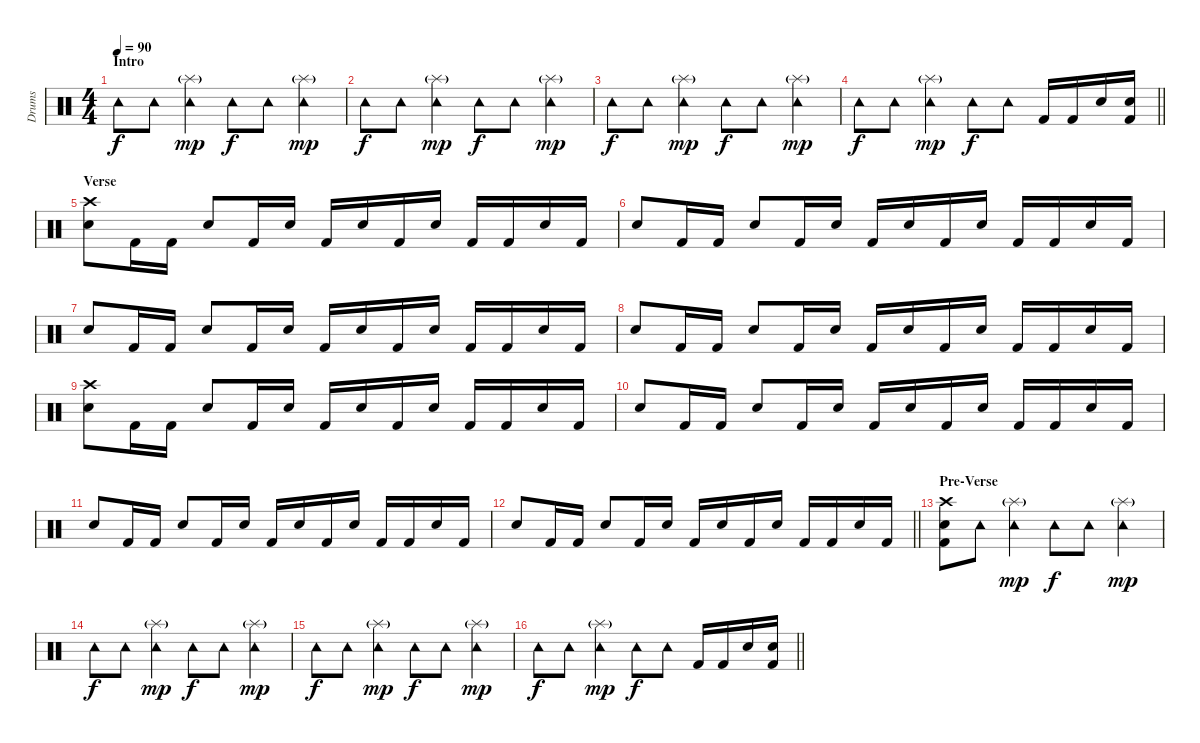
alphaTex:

\track ("Drums" "Drums") {instrument percussion}
\staff {score}
\articulation defaults
\ts (4 4)
\section ("" "Intro")
\tempo 90
\clef neutral
\ks c "Tambourine (hit)".8{dy f} "Tambourine (hit)".8
("Tambourine (hit)" "Splash (hit)"{g}).4{dy mp} "Tambourine (hit)".8{dy f} "Tambourine (hit)".8 ("Tambourine (hit)" "Splash (hit)"{g}).4{dy mp} |
"Tambourine (hit)".8{dy f} "Tambourine (hit)".8 ("Tambourine (hit)" "Splash (hit)"{g}).4{dy mp} "Tambourine (hit)".8{dy f} "Tambourine (hit)".8 ("Tambourine (hit)" "Splash (hit)"{g}).4{dy mp} |
"Tambourine (hit)".8{dy f} "Tambourine (hit)".8 ("Tambourine (hit)" "Splash (hit)"{g}).4{dy mp} "Tambourine (hit)".8{dy f} "Tambourine (hit)".8 ("Tambourine (hit)" "Splash (hit)"{g}).4{dy mp} |
\barLineRight lightlight "Tambourine (hit)".8{dy f} "Tambourine (hit)".8
("Tambourine (hit)" "Splash (hit)"{g}).4{dy mp} "Tambourine (hit)".8{dy f} "Tambourine (hit)".8 "Kick (hit) 2".16 "Kick (hit) 2".16 "Electric Snare (hit)".16 ("Kick (hit) 2" "Electric Snare (hit)").16 |
\section ("" "Verse")
("Electric Snare (hit)" "Crash high (hit)").8 "Kick (hit) 2".16 "Kick (hit) 2".16 "Electric Snare (hit)".8 "Kick (hit) 2".16 "Electric Snare (hit)".16 "Kick (hit) 2".16 "Electric Snare (hit)".16 "Kick (hit) 2".16 "Electric Snare (hit)".16 "Kick (hit) 2".16 "Kick (hit) 2".16 "Electric Snare (hit)".16 "Kick (hit) 2".16 |
"Electric Snare (hit)".8 "Kick (hit) 2".16 "Kick (hit) 2".16 "Electric Snare (hit)".8 "Kick (hit) 2".16 "Electric Snare (hit)".16 "Kick (hit) 2".16 "Electric Snare (hit)".16 "Kick (hit) 2".16 "Electric Snare (hit)".16 "Kick (hit) 2".16 "Kick (hit) 2".16 "Electric Snare (hit)".16 "Kick (hit) 2".16 |
"Electric Snare (hit)".8 "Kick (hit) 2".16 "Kick (hit) 2".16 "Electric Snare (hit)".8 "Kick (hit) 2".16 "Electric Snare (hit)".16 "Kick (hit) 2".16 "Electric Snare (hit)".16 "Kick (hit) 2".16 "Electric Snare (hit)".16 "Kick (hit) 2".16 "Kick (hit) 2".16 "Electric Snare (hit)".16 "Kick (hit) 2".16 |
"Electric Snare (hit)".8 "Kick (hit) 2".16 "Kick (hit) 2".16 "Electric Snare (hit)".8 "Kick (hit) 2".16 "Electric Snare (hit)".16 "Kick (hit) 2".16 "Electric Snare (hit)".16 "Kick (hit) 2".16 "Electric Snare (hit)".16 "Kick (hit) 2".16 "Kick (hit) 2".16 "Electric Snare (hit)".16 "Kick (hit) 2".16 |
("Electric Snare (hit)" "Crash high (hit)").8 "Kick (hit) 2".16 "Kick (hit) 2".16 "Electric Snare (hit)".8 "Kick (hit) 2".16 "Electric Snare (hit)".16 "Kick (hit) 2".16 "Electric Snare (hit)".16 "Kick (hit) 2".16 "Electric Snare (hit)".16 "Kick (hit) 2".16 "Kick (hit) 2".16 "Electric Snare (hit)".16 "Kick (hit) 2".16 |
"Electric Snare (hit)".8 "Kick (hit) 2".16 "Kick (hit) 2".16 "Electric Snare (hit)".8 "Kick (hit) 2".16 "Electric Snare (hit)".16 "Kick (hit) 2".16 "Electric Snare (hit)".16 "Kick (hit) 2".16 "Electric Snare (hit)".16 "Kick (hit) 2".16 "Kick (hit) 2".16 "Electric Snare (hit)".16 "Kick (hit) 2".16 |
"Electric Snare (hit)".8 "Kick (hit) 2".16 "Kick (hit) 2".16 "Electric Snare (hit)".8 "Kick (hit) 2".16 "Electric Snare (hit)".16 "Kick (hit) 2".16 "Electric Snare (hit)".16 "Kick (hit) 2".16 "Electric Snare (hit)".16 "Kick (hit) 2".16 "Kick (hit) 2".16 "Electric Snare (hit)".16 "Kick (hit) 2".16 |
\barLineRight lightlight "Electric Snare (hit)".8 "Kick (hit) 2".16 "Kick (hit) 2".16 "Electric Snare (hit)".8 "Kick (hit) 2".16 "Electric Snare (hit)".16 "Kick (hit) 2".16 "Electric Snare (hit)".16 "Kick (hit) 2".16 "Electric Snare (hit)".16 "Kick (hit) 2".16 "Kick (hit) 2".16 "Electric Snare (hit)".16 "Kick (hit) 2".16
|
\section ("" "Pre-Verse")
("Kick (hit) 2" "Electric Snare (hit)" "Crash high (hit)").8 "Tambourine (hit)".8 ("Tambourine (hit)" "Splash (hit)"{g}).4{dy mp} "Tambourine (hit)".8{dy f} "Tambourine (hit)".8 ("Tambourine (hit)" "Splash (hit)"{g}).4{dy mp} |
"Tambourine (hit)".8{dy f} "Tambourine (hit)".8 ("Tambourine (hit)" "Splash (hit)"{g}).4{dy mp} "Tambourine (hit)".8{dy f} "Tambourine (hit)".8 ("Tambourine (hit)" "Splash (hit)"{g}).4{dy mp} |
"Tambourine (hit)".8{dy f} "Tambourine (hit)".8 ("Tambourine (hit)" "Splash (hit)"{g}).4{dy mp} "Tambourine (hit)".8{dy f} "Tambourine (hit)".8 ("Tambourine (hit)" "Splash (hit)"{g}).4{dy mp} |
\barLineRight lightlight "Tambourine (hit)".8{dy f} "Tambourine (hit)".8
("Tambourine (hit)" "Splash (hit)"{g}).4{dy mp} "Tambourine (hit)".8{dy f} "Tambourine (hit)".8 "Kick (hit) 2".16 "Kick (hit) 2".16 "Electric Snare (hit)".16 ("Kick (hit) 2" "Electric Snare (hit)").16
